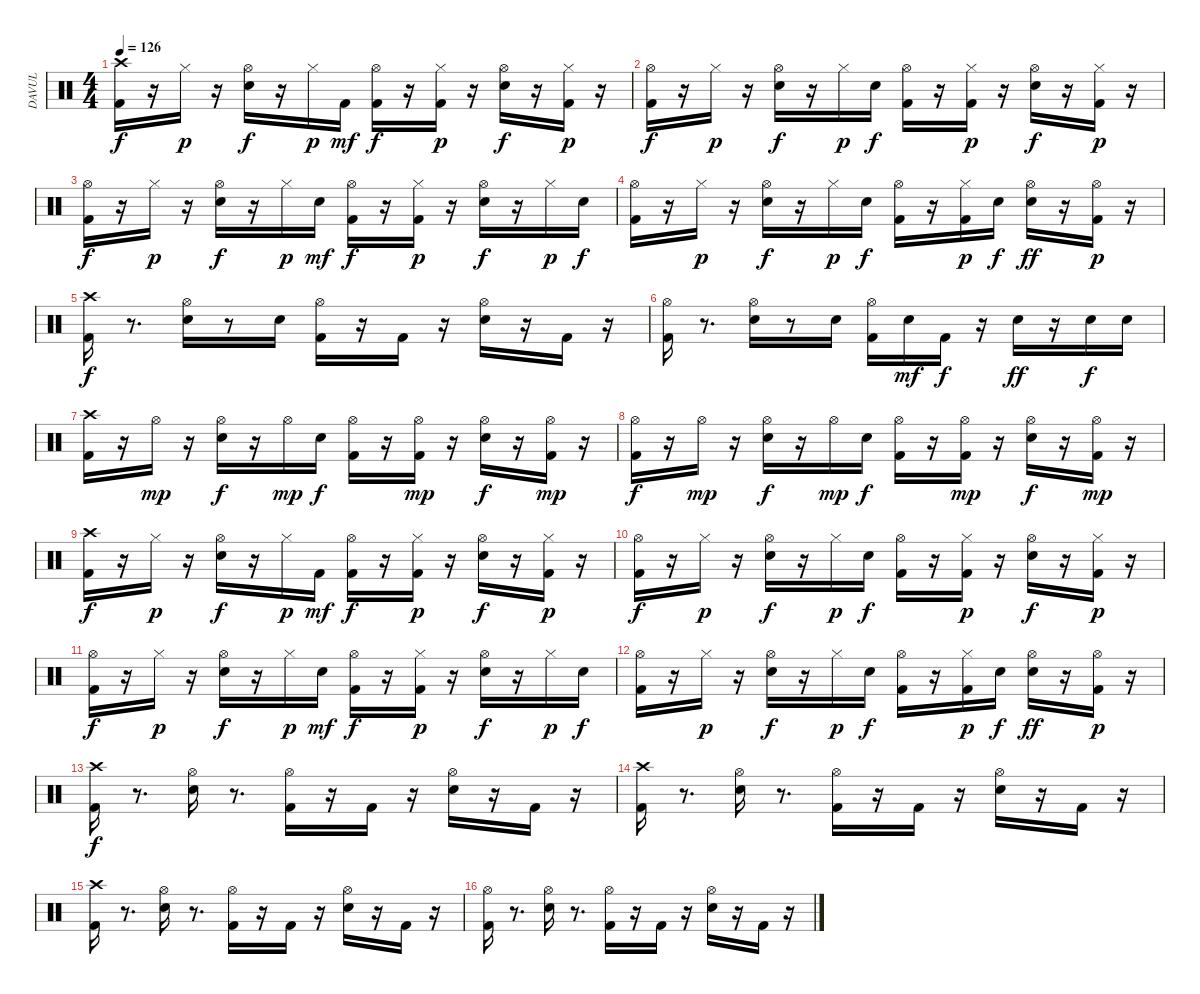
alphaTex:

\track ("DAVUL" "DAVUL") {instrument percussion}
\staff {score}
\articulation defaults
\ts (4 4)
\tempo 126
\clef neutral
\ks c
("Crash high (hit)" "Kick (hit) 2").16{dy f} r.16 "Hi-Hat (closed)".16{dy p} r.16 ("Electric Snare (hit)" "Hi-Hat (open)").16{dy f} r.16 "Hi-Hat (closed)".16{dy p} "Kick (hit) 2".16{dy mf} ("Hi-Hat (open)" "Kick (hit) 2").16{dy f} r.16 ("Hi-Hat (closed)" "Kick (hit) 2").16{dy p} r.16 ("Electric Snare (hit)" "Hi-Hat (open)").16{dy f} r.16 ("Hi-Hat (closed)" "Kick (hit) 2").16{dy p} r.16 |
("Hi-Hat (open)" "Kick (hit) 2").16{dy f} r.16 "Hi-Hat (closed)".16{dy p} r.16 ("Electric Snare (hit)" "Hi-Hat (open)").16{dy f} r.16 "Hi-Hat (closed)".16{dy p} "Electric Snare (hit)".16{dy f} ("Hi-Hat (open)" "Kick (hit) 2").16 r.16 ("Hi-Hat (closed)" "Kick (hit) 2").16{dy p} r.16 ("Electric Snare (hit)" "Hi-Hat (open)").16{dy f} r.16 ("Hi-Hat (closed)" "Kick (hit) 2").16{dy p} r.16 |
("Kick (hit) 2" "Hi-Hat (open)").16{dy f} r.16 "Hi-Hat (closed)".16{dy p} r.16 ("Electric Snare (hit)" "Hi-Hat (open)").16{dy f} r.16 "Hi-Hat (closed)".16{dy p} "Electric Snare (hit)".16{dy mf} ("Hi-Hat (open)" "Kick (hit) 2").16{dy f} r.16 ("Hi-Hat (closed)" "Kick (hit) 2").16{dy p} r.16 ("Electric Snare (hit)" "Hi-Hat (open)").16{dy f} r.16 "Hi-Hat (closed)".16{dy p} "Electric Snare (hit)".16{dy f} |
("Hi-Hat (open)" "Kick (hit) 2").16 r.16 "Hi-Hat (closed)".16{dy p} r.16 ("Electric Snare (hit)" "Hi-Hat (open)").16{dy f} r.16 "Hi-Hat (closed)".16{dy p} "Electric Snare (hit)".16{dy f} ("Hi-Hat (open)" "Kick (hit) 2").16 r.16 ("Hi-Hat (closed)" "Kick (hit) 2").16{dy p} "Electric Snare (hit)".16{dy f} ("Electric Snare (hit)" "Hi-Hat (open)").16{dy ff} r.16 ("Kick (hit) 2" "Hi-Hat (open)").16{dy p} r.16 |
("Crash high (hit)" "Kick (hit) 2").16{dy f} r.8{d} ("Hi-Hat (open)" "Electric Snare (hit)").16 r.8 "Electric Snare (hit)".16 ("Hi-Hat (open)" "Kick (hit) 2").16 r.16 "Kick (hit) 2".16 r.16 ("Hi-Hat (open)" "Electric Snare (hit)").16 r.16 "Kick (hit) 2".16 r.16 |
("Kick (hit) 2" "Hi-Hat (open)").16 r.8{d} ("Hi-Hat (open)" "Electric Snare (hit)").16 r.8 "Electric Snare (hit)".16 ("Hi-Hat (open)" "Kick (hit) 2").16 "Electric Snare (hit)".16{dy mf} "Kick (hit) 2".16{dy f} r.16 "Electric Snare (hit)".16{dy ff} r.16 "Electric Snare (hit)".16{dy f} "Electric Snare (hit)".16 |
("Kick (hit) 2" "Crash high (hit)").16 r.16 "Hi-Hat (open)".16{dy mp} r.16 ("Hi-Hat (open)" "Electric Snare (hit)").16{dy f} r.16 "Hi-Hat (open)".16{dy mp} "Electric Snare (hit)".16{dy f} ("Hi-Hat (open)" "Kick (hit) 2").16 r.16 ("Hi-Hat (open)" "Kick (hit) 2").16{dy mp} r.16 ("Hi-Hat (open)" "Electric Snare (hit)").16{dy f} r.16 ("Hi-Hat (open)" "Kick (hit) 2").16{dy mp} r.16 |
("Kick (hit) 2" "Hi-Hat (open)").16{dy f} r.16 "Hi-Hat (open)".16{dy mp} r.16 ("Hi-Hat (open)" "Electric Snare (hit)").16{dy f} r.16 "Hi-Hat (open)".16{dy mp} "Electric Snare (hit)".16{dy f} ("Hi-Hat (open)" "Kick (hit) 2").16 r.16 ("Hi-Hat (open)" "Kick (hit) 2").16{dy mp} r.16 ("Hi-Hat (open)" "Electric Snare (hit)").16{dy f} r.16 ("Hi-Hat (open)" "Kick (hit) 2").16{dy mp} r.16 |
("Crash high (hit)" "Kick (hit) 2").16{dy f} r.16 "Hi-Hat (closed)".16{dy p} r.16 ("Electric Snare (hit)" "Hi-Hat (open)").16{dy f} r.16 "Hi-Hat (closed)".16{dy p} "Kick (hit) 2".16{dy mf} ("Hi-Hat (open)" "Kick (hit) 2").16{dy f} r.16 ("Hi-Hat (closed)" "Kick (hit) 2").16{dy p} r.16 ("Electric Snare (hit)" "Hi-Hat (open)").16{dy f} r.16 ("Hi-Hat (closed)" "Kick (hit) 2").16{dy p} r.16 |
("Hi-Hat (open)" "Kick (hit) 2").16{dy f} r.16 "Hi-Hat (closed)".16{dy p} r.16 ("Electric Snare (hit)" "Hi-Hat (open)").16{dy f} r.16 "Hi-Hat (closed)".16{dy p} "Electric Snare (hit)".16{dy f} ("Hi-Hat (open)" "Kick (hit) 2").16 r.16 ("Hi-Hat (closed)" "Kick (hit) 2").16{dy p} r.16 ("Electric Snare (hit)" "Hi-Hat (open)").16{dy f} r.16 ("Hi-Hat (closed)" "Kick (hit) 2").16{dy p} r.16 |
("Kick (hit) 2" "Hi-Hat (open)").16{dy f} r.16 "Hi-Hat (closed)".16{dy p} r.16 ("Electric Snare (hit)" "Hi-Hat (open)").16{dy f} r.16 "Hi-Hat (closed)".16{dy p} "Electric Snare (hit)".16{dy mf} ("Hi-Hat (open)" "Kick (hit) 2").16{dy f} r.16 ("Hi-Hat (closed)" "Kick (hit) 2").16{dy p} r.16 ("Electric Snare (hit)" "Hi-Hat (open)").16{dy f} r.16 "Hi-Hat (closed)".16{dy p} "Electric Snare (hit)".16{dy f} |
("Hi-Hat (open)" "Kick (hit) 2").16 r.16 "Hi-Hat (closed)".16{dy p} r.16 ("Electric Snare (hit)" "Hi-Hat (open)").16{dy f} r.16 "Hi-Hat (closed)".16{dy p} "Electric Snare (hit)".16{dy f} ("Hi-Hat (open)" "Kick (hit) 2").16 r.16 ("Hi-Hat (closed)" "Kick (hit) 2").16{dy p} "Electric Snare (hit)".16{dy f} ("Electric Snare (hit)" "Hi-Hat (open)").16{dy ff} r.16 ("Kick (hit) 2" "Hi-Hat (open)").16{dy p} r.16 |
("Crash high (hit)" "Kick (hit) 2").16{dy f} r.8{d} ("Hi-Hat (open)" "Electric Snare (hit)").16 r.8{d} ("Hi-Hat (open)" "Kick (hit) 2").16 r.16 "Kick (hit) 2".16 r.16 ("Hi-Hat (open)" "Electric Snare (hit)").16 r.16 "Kick (hit) 2".16 r.16 |
("Kick (hit) 2" "Crash high (hit)").16 r.8{d} ("Hi-Hat (open)" "Electric Snare (hit)").16 r.8{d} ("Hi-Hat (open)" "Kick (hit) 2").16 r.16 "Kick (hit) 2".16 r.16 ("Hi-Hat (open)" "Electric Snare (hit)").16 r.16 "Kick (hit) 2".16 r.16 |
("Crash high (hit)" "Kick (hit) 2").16 r.8{d} ("Hi-Hat (open)" "Electric Snare (hit)").16 r.8{d} ("Hi-Hat (open)" "Kick (hit) 2").16 r.16 "Kick (hit) 2".16 r.16 ("Hi-Hat (open)" "Electric Snare (hit)").16 r.16 "Kick (hit) 2".16 r.16 |
("Kick (hit) 2" "Hi-Hat (open)").16 r.8{d} ("Hi-Hat (open)" "Electric Snare (hit)").16 r.8{d} ("Hi-Hat (open)" "Kick (hit) 2").16 r.16 "Kick (hit) 2".16 r.16 ("Hi-Hat (open)" "Electric Snare (hit)").16 r.16 "Kick (hit) 2".16 r.16
